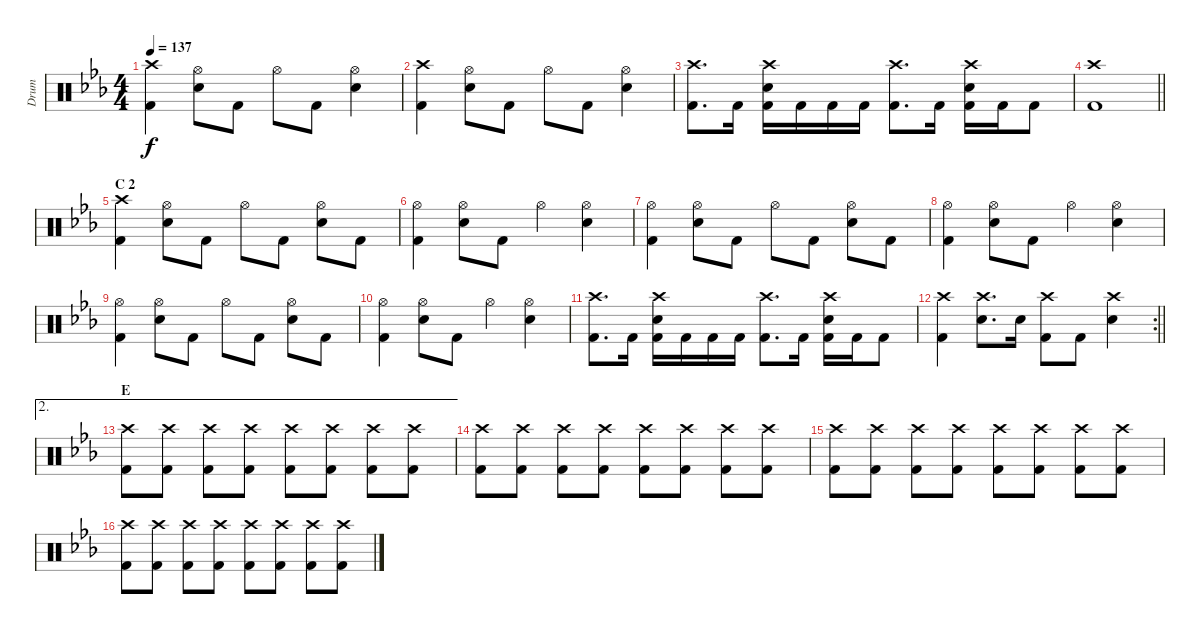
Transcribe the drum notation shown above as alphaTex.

\track ("Drum" "Drum") {instrument percussion}
\staff {score}
\articulation defaults
\ts (4 4)
\tempo 137
\clef neutral
\ks eb
("Crash high (hit)" "Kick (hit) 2").4{dy f} ("Hi-Hat (open)" "Snare (hit) 2").8 "Kick (hit) 2".8 "Hi-Hat (open)".8 "Kick (hit) 2".8 ("Hi-Hat (open)" "Snare (hit) 2").4 |
("Crash high (hit)" "Kick (hit) 2").4 ("Hi-Hat (open)" "Snare (hit) 2").8 "Kick (hit) 2".8 "Hi-Hat (open)".8 "Kick (hit) 2".8 ("Hi-Hat (open)" "Snare (hit) 2").4 |
("Crash high (hit)" "Kick (hit) 2").8{d} "Kick (hit) 2".16 ("Crash high (hit)" "Snare (hit) 2" "Kick (hit) 2").16 "Kick (hit) 2".16 "Kick (hit) 2".16 "Kick (hit) 2".16 ("Crash high (hit)" "Kick (hit) 2").8{d} "Kick (hit) 2".16 ("Crash high (hit)" "Snare (hit) 2" "Kick (hit) 2").16 "Kick (hit) 2".16 "Kick (hit) 2".8 |
\barLineRight lightlight
("Crash high (hit)" "Kick (hit) 2").1 |
\section ("" "C 2")
("Crash high (hit)" "Kick (hit) 2").4 ("Hi-Hat (open)" "Snare (hit) 2").8 "Kick (hit) 2".8 "Hi-Hat (open)".8 "Kick (hit) 2".8 ("Hi-Hat (open)" "Snare (hit) 2").8 "Kick (hit) 2".8 |
("Hi-Hat (open)" "Kick (hit) 2").4 ("Hi-Hat (open)" "Snare (hit) 2").8 "Kick (hit) 2".8 "Hi-Hat (open)".4 ("Hi-Hat (open)" "Snare (hit) 2").4 |
("Hi-Hat (open)" "Kick (hit) 2").4 ("Hi-Hat (open)" "Snare (hit) 2").8 "Kick (hit) 2".8 "Hi-Hat (open)".8 "Kick (hit) 2".8 ("Hi-Hat (open)" "Snare (hit) 2").8 "Kick (hit) 2".8 |
("Hi-Hat (open)" "Kick (hit) 2").4 ("Hi-Hat (open)" "Snare (hit) 2").8 "Kick (hit) 2".8 "Hi-Hat (open)".4 ("Hi-Hat (open)" "Snare (hit) 2").4 |
("Hi-Hat (open)" "Kick (hit) 2").4 ("Hi-Hat (open)" "Snare (hit) 2").8 "Kick (hit) 2".8 "Hi-Hat (open)".8 "Kick (hit) 2".8 ("Hi-Hat (open)" "Snare (hit) 2").8 "Kick (hit) 2".8 |
("Hi-Hat (open)" "Kick (hit) 2").4 ("Hi-Hat (open)" "Snare (hit) 2").8 "Kick (hit) 2".8 "Hi-Hat (open)".4 ("Hi-Hat (open)" "Snare (hit) 2").4 |
("Crash high (hit)" "Kick (hit) 2").8{d} "Kick (hit) 2".16 ("Crash high (hit)" "Snare (hit) 2" "Kick (hit) 2").16 "Kick (hit) 2".16 "Kick (hit) 2".16 "Kick (hit) 2".16 ("Crash high (hit)" "Kick (hit) 2").8{d} "Kick (hit) 2".16 ("Crash high (hit)" "Snare (hit) 2" "Kick (hit) 2").16 "Kick (hit) 2".16 "Kick (hit) 2".8 |
\rc 2
\barLineRight lightlight
("Crash high (hit)" "Kick (hit) 2").4 ("Crash high (hit)" "Snare (hit) 2").8{d} "Snare (hit) 2".16 ("Crash high (hit)" "Kick (hit) 2").8 "Kick (hit) 2".8 ("Crash high (hit)" "Snare (hit) 2").4 |
\ae 2
\section ("" "E")
("Crash high (hit)" "Kick (hit) 2").8 ("Crash high (hit)" "Kick (hit) 2").8 ("Crash high (hit)" "Kick (hit) 2").8 ("Crash high (hit)" "Kick (hit) 2").8 ("Crash high (hit)" "Kick (hit) 2").8 ("Crash high (hit)" "Kick (hit) 2").8 ("Crash high (hit)" "Kick (hit) 2").8 ("Crash high (hit)" "Kick (hit) 2").8 |
("Crash high (hit)" "Kick (hit) 2").8 ("Crash high (hit)" "Kick (hit) 2").8 ("Crash high (hit)" "Kick (hit) 2").8 ("Crash high (hit)" "Kick (hit) 2").8 ("Crash high (hit)" "Kick (hit) 2").8 ("Crash high (hit)" "Kick (hit) 2").8 ("Crash high (hit)" "Kick (hit) 2").8 ("Crash high (hit)" "Kick (hit) 2").8 |
("Crash high (hit)" "Kick (hit) 2").8 ("Crash high (hit)" "Kick (hit) 2").8 ("Crash high (hit)" "Kick (hit) 2").8 ("Crash high (hit)" "Kick (hit) 2").8 ("Crash high (hit)" "Kick (hit) 2").8 ("Crash high (hit)" "Kick (hit) 2").8 ("Crash high (hit)" "Kick (hit) 2").8 ("Crash high (hit)" "Kick (hit) 2").8 |
("Crash high (hit)" "Kick (hit) 2").8 ("Crash high (hit)" "Kick (hit) 2").8 ("Crash high (hit)" "Kick (hit) 2").8 ("Crash high (hit)" "Kick (hit) 2").8 ("Crash high (hit)" "Kick (hit) 2").8 ("Crash high (hit)" "Kick (hit) 2").8 ("Crash high (hit)" "Kick (hit) 2").8 ("Crash high (hit)" "Kick (hit) 2").8
